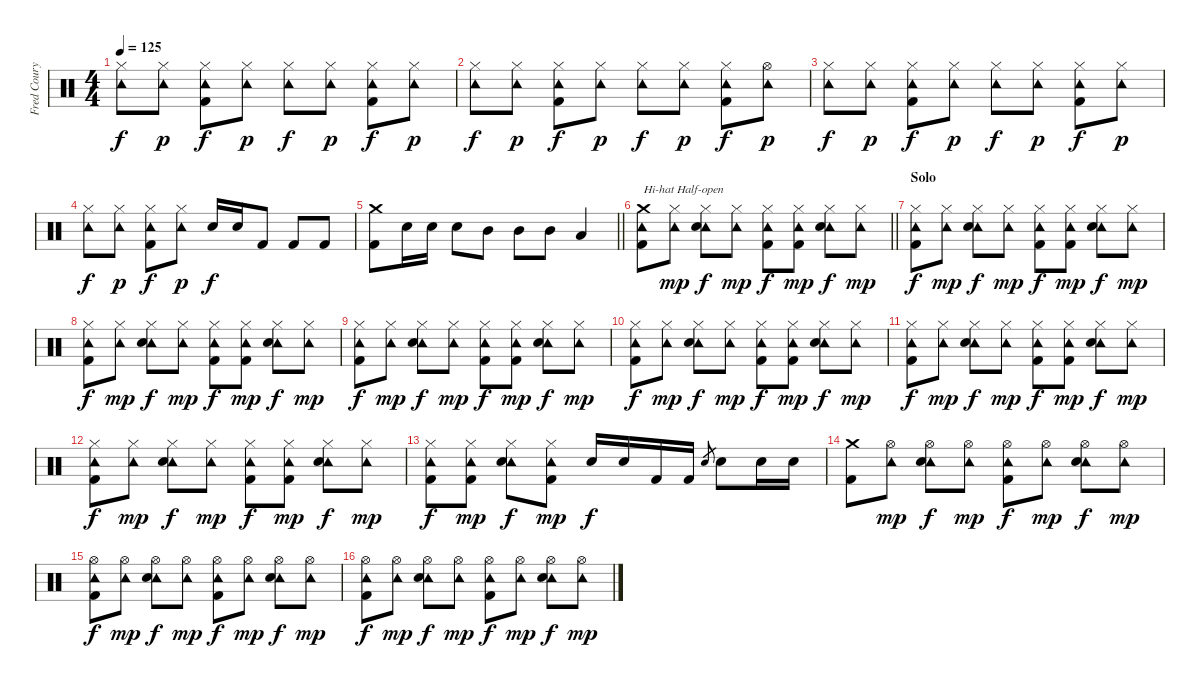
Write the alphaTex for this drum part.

\track ("Fred Coury - Drums" "Fred Coury") {instrument percussion}
\staff {score}
\articulation defaults
\ts (4 4)
\tempo 125
\clef neutral
\ks c
("Hi-Hat (closed)" "Tambourine (hit)").8{dy f} ("Hi-Hat (closed)" "Tambourine (hit)").8{dy p} ("Hi-Hat (closed)" "Tambourine (hit)" "Kick (hit) 2").8{dy f} ("Hi-Hat (closed)" "Tambourine (hit)").8{dy p} ("Hi-Hat (closed)" "Tambourine (hit)").8{dy f} ("Hi-Hat (closed)" "Tambourine (hit)").8{dy p} ("Hi-Hat (closed)" "Tambourine (hit)" "Kick (hit) 2").8{dy f} ("Hi-Hat (closed)" "Tambourine (hit)").8{dy p} |
("Hi-Hat (closed)" "Tambourine (hit)").8{dy f} ("Hi-Hat (closed)" "Tambourine (hit)").8{dy p} ("Hi-Hat (closed)" "Tambourine (hit)" "Kick (hit) 2").8{dy f} ("Hi-Hat (closed)" "Tambourine (hit)").8{dy p} ("Hi-Hat (closed)" "Tambourine (hit)").8{dy f} ("Hi-Hat (closed)" "Tambourine (hit)").8{dy p} ("Hi-Hat (closed)" "Tambourine (hit)" "Kick (hit) 2").8{dy f} ("Hi-Hat (open)" "Tambourine (hit)").8{dy p} |
("Hi-Hat (closed)" "Tambourine (hit)").8{dy f} ("Hi-Hat (closed)" "Tambourine (hit)").8{dy p} ("Hi-Hat (closed)" "Tambourine (hit)" "Kick (hit) 2").8{dy f} ("Hi-Hat (closed)" "Tambourine (hit)").8{dy p} ("Hi-Hat (closed)" "Tambourine (hit)").8{dy f} ("Hi-Hat (closed)" "Tambourine (hit)").8{dy p} ("Hi-Hat (closed)" "Tambourine (hit)" "Kick (hit) 2").8{dy f} ("Hi-Hat (closed)" "Tambourine (hit)").8{dy p} |
("Hi-Hat (closed)" "Tambourine (hit)").8{dy f} ("Hi-Hat (closed)" "Tambourine (hit)").8{dy p} ("Hi-Hat (closed)" "Tambourine (hit)" "Kick (hit) 2").8{dy f} ("Hi-Hat (closed)" "Tambourine (hit)").8{dy p} "Snare (hit) 2".16{dy f} "Snare (hit) 2".16 "Kick (hit) 2".8 "Kick (hit) 2".8 "Kick (hit) 2".8 |
\barLineRight lightlight
("Crash medium (hit)" "Kick (hit) 2").8 "Snare (hit) 2".16 "Snare (hit) 2".16 "Snare (hit) 2".8 "Mid Tom (hit)".8 "Mid Tom (hit)".8 "Mid Tom (hit)".8 "Low Tom (hit)".4 |
\section ("" "")
\barLineRight lightlight
("Crash medium (hit)" "Tambourine (hit)" "Kick (hit) 2").8{txt "Hi-hat Half-open"} ("Hi-Hat (closed)" "Tambourine (hit)").8{dy mp} ("Hi-Hat (closed)" "Tambourine (hit)" "Snare (hit) 2").8{dy f} ("Hi-Hat (closed)" "Tambourine (hit)").8{dy mp} ("Hi-Hat (closed)" "Tambourine (hit)" "Kick (hit) 2").8{dy f} ("Hi-Hat (closed)" "Tambourine (hit)" "Kick (hit) 2").8{dy mp} ("Hi-Hat (closed)" "Tambourine (hit)" "Snare (hit) 2").8{dy f} ("Hi-Hat (closed)" "Tambourine (hit)").8{dy mp} |
\section ("" "Solo")
("Hi-Hat (closed)" "Tambourine (hit)" "Kick (hit) 2").8{dy f} ("Hi-Hat (closed)" "Tambourine (hit)").8{dy mp} ("Hi-Hat (closed)" "Tambourine (hit)" "Snare (hit) 2").8{dy f} ("Hi-Hat (closed)" "Tambourine (hit)").8{dy mp} ("Hi-Hat (closed)" "Tambourine (hit)" "Kick (hit) 2").8{dy f} ("Hi-Hat (closed)" "Tambourine (hit)" "Kick (hit) 2").8{dy mp} ("Hi-Hat (closed)" "Tambourine (hit)" "Snare (hit) 2").8{dy f} ("Hi-Hat (closed)" "Tambourine (hit)").8{dy mp} |
("Hi-Hat (closed)" "Tambourine (hit)" "Kick (hit) 2").8{dy f} ("Hi-Hat (closed)" "Tambourine (hit)").8{dy mp} ("Hi-Hat (closed)" "Tambourine (hit)" "Snare (hit) 2").8{dy f} ("Hi-Hat (closed)" "Tambourine (hit)").8{dy mp} ("Hi-Hat (closed)" "Tambourine (hit)" "Kick (hit) 2").8{dy f} ("Hi-Hat (closed)" "Tambourine (hit)" "Kick (hit) 2").8{dy mp} ("Hi-Hat (closed)" "Tambourine (hit)" "Snare (hit) 2").8{dy f} ("Hi-Hat (closed)" "Tambourine (hit)").8{dy mp} |
("Hi-Hat (closed)" "Tambourine (hit)" "Kick (hit) 2").8{dy f} ("Hi-Hat (closed)" "Tambourine (hit)").8{dy mp} ("Hi-Hat (closed)" "Tambourine (hit)" "Snare (hit) 2").8{dy f} ("Hi-Hat (closed)" "Tambourine (hit)").8{dy mp} ("Hi-Hat (closed)" "Tambourine (hit)" "Kick (hit) 2").8{dy f} ("Hi-Hat (closed)" "Tambourine (hit)" "Kick (hit) 2").8{dy mp} ("Hi-Hat (closed)" "Tambourine (hit)" "Snare (hit) 2").8{dy f} ("Hi-Hat (closed)" "Tambourine (hit)").8{dy mp} |
("Hi-Hat (closed)" "Tambourine (hit)" "Kick (hit) 2").8{dy f} ("Hi-Hat (closed)" "Tambourine (hit)").8{dy mp} ("Hi-Hat (closed)" "Tambourine (hit)" "Snare (hit) 2").8{dy f} ("Hi-Hat (closed)" "Tambourine (hit)").8{dy mp} ("Hi-Hat (closed)" "Tambourine (hit)" "Kick (hit) 2").8{dy f} ("Hi-Hat (closed)" "Tambourine (hit)" "Kick (hit) 2").8{dy mp} ("Hi-Hat (closed)" "Tambourine (hit)" "Snare (hit) 2").8{dy f} ("Hi-Hat (closed)" "Tambourine (hit)").8{dy mp} |
("Hi-Hat (closed)" "Tambourine (hit)" "Kick (hit) 2").8{dy f} ("Hi-Hat (closed)" "Tambourine (hit)").8{dy mp} ("Hi-Hat (closed)" "Tambourine (hit)" "Snare (hit) 2").8{dy f} ("Hi-Hat (closed)" "Tambourine (hit)").8{dy mp} ("Hi-Hat (closed)" "Tambourine (hit)" "Kick (hit) 2").8{dy f} ("Hi-Hat (closed)" "Tambourine (hit)" "Kick (hit) 2").8{dy mp} ("Hi-Hat (closed)" "Tambourine (hit)" "Snare (hit) 2").8{dy f} ("Hi-Hat (closed)" "Tambourine (hit)").8{dy mp} |
("Hi-Hat (closed)" "Tambourine (hit)" "Kick (hit) 2").8{dy f} ("Hi-Hat (closed)" "Tambourine (hit)").8{dy mp} ("Hi-Hat (closed)" "Tambourine (hit)" "Snare (hit) 2").8{dy f} ("Hi-Hat (closed)" "Tambourine (hit)").8{dy mp} ("Hi-Hat (closed)" "Tambourine (hit)" "Kick (hit) 2").8{dy f} ("Hi-Hat (closed)" "Tambourine (hit)" "Kick (hit) 2").8{dy mp} ("Hi-Hat (closed)" "Tambourine (hit)" "Snare (hit) 2").8{dy f} ("Hi-Hat (closed)" "Tambourine (hit)").8{dy mp} |
("Hi-Hat (closed)" "Tambourine (hit)" "Kick (hit) 2").8{dy f} ("Hi-Hat (closed)" "Tambourine (hit)" "Kick (hit) 2").8{dy mp} ("Hi-Hat (closed)" "Tambourine (hit)" "Snare (hit) 2").8{dy f} ("Hi-Hat (closed)" "Tambourine (hit)" "Kick (hit) 2").8{dy mp} "Snare (hit) 2".16{dy f} "Snare (hit) 2".16 "Kick (hit) 2".16 "Kick (hit) 2".16 "Snare (hit) 2".8{gr} "Snare (hit) 2".8 "Snare (hit) 2".16 "Snare (hit) 2".16 |
("Crash medium (hit)" "Kick (hit) 2").8 ("Hi-Hat (open)" "Tambourine (hit)").8{dy mp} ("Hi-Hat (open)" "Tambourine (hit)" "Snare (hit) 2").8{dy f} ("Hi-Hat (open)" "Tambourine (hit)").8{dy mp} ("Hi-Hat (open)" "Tambourine (hit)" "Kick (hit) 2").8{dy f} ("Hi-Hat (open)" "Tambourine (hit)").8{dy mp} ("Hi-Hat (open)" "Tambourine (hit)" "Snare (hit) 2").8{dy f} ("Hi-Hat (open)" "Tambourine (hit)").8{dy mp} |
("Hi-Hat (open)" "Tambourine (hit)" "Kick (hit) 2").8{dy f} ("Hi-Hat (open)" "Tambourine (hit)").8{dy mp} ("Hi-Hat (open)" "Tambourine (hit)" "Snare (hit) 2").8{dy f} ("Hi-Hat (open)" "Tambourine (hit)").8{dy mp} ("Hi-Hat (open)" "Tambourine (hit)" "Kick (hit) 2").8{dy f} ("Hi-Hat (open)" "Tambourine (hit)").8{dy mp} ("Hi-Hat (open)" "Tambourine (hit)" "Snare (hit) 2").8{dy f} ("Hi-Hat (open)" "Tambourine (hit)").8{dy mp} |
("Hi-Hat (open)" "Tambourine (hit)" "Kick (hit) 2").8{dy f} ("Hi-Hat (open)" "Tambourine (hit)").8{dy mp} ("Hi-Hat (open)" "Tambourine (hit)" "Snare (hit) 2").8{dy f} ("Hi-Hat (open)" "Tambourine (hit)").8{dy mp} ("Hi-Hat (open)" "Tambourine (hit)" "Kick (hit) 2").8{dy f} ("Hi-Hat (open)" "Tambourine (hit)").8{dy mp} ("Hi-Hat (open)" "Tambourine (hit)" "Snare (hit) 2").8{dy f} ("Hi-Hat (open)" "Tambourine (hit)").8{dy mp}
